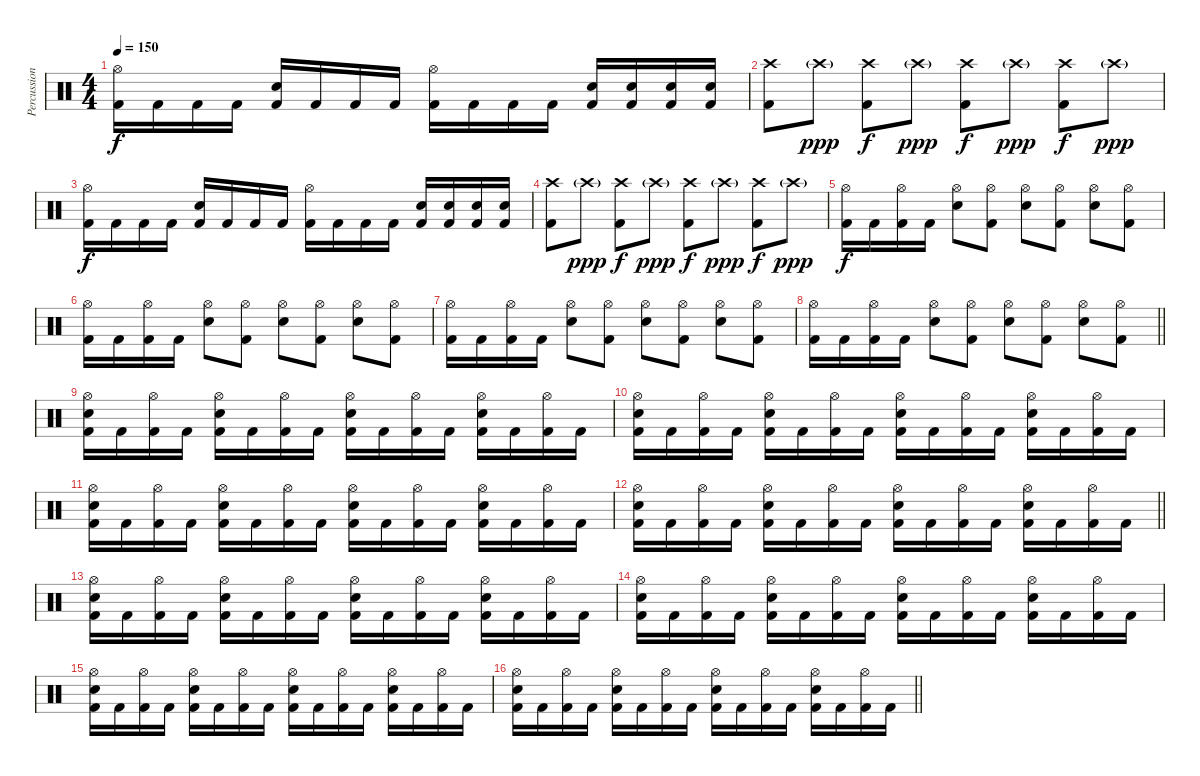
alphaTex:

\track ("Percussion" "Percussion") {instrument percussion}
\staff {score}
\articulation defaults
\ts (4 4)
\tempo 150
\clef neutral
\ks c
("Hi-Hat (open)" "Kick (hit) 2").16{dy f} "Kick (hit) 2".16 "Kick (hit) 2".16 "Kick (hit) 2".16 ("Electric Snare (hit)" "Kick (hit) 2").16 "Kick (hit) 2".16 "Kick (hit) 2".16 "Kick (hit) 2".16 ("Hi-Hat (open)" "Kick (hit) 2").16 "Kick (hit) 2".16 "Kick (hit) 2".16 "Kick (hit) 2".16 ("Electric Snare (hit)" "Kick (hit) 2").16 ("Electric Snare (hit)" "Kick (hit) 2").16 ("Electric Snare (hit)" "Kick (hit) 2").16 ("Electric Snare (hit)" "Kick (hit) 2").16 |
("Crash high (hit)" "Kick (hit) 2").8 "Crash high (hit)"{g}.8{dy ppp} ("Crash high (hit)" "Kick (hit) 2").8{dy f} "Crash high (hit)"{g}.8{dy ppp} ("Crash high (hit)" "Kick (hit) 2").8{dy f} "Crash high (hit)"{g}.8{dy ppp} ("Crash high (hit)" "Kick (hit) 2").8{dy f} "Crash high (hit)"{g}.8{dy ppp} |
("Hi-Hat (open)" "Kick (hit) 2").16{dy f} "Kick (hit) 2".16 "Kick (hit) 2".16 "Kick (hit) 2".16 ("Electric Snare (hit)" "Kick (hit) 2").16 "Kick (hit) 2".16 "Kick (hit) 2".16 "Kick (hit) 2".16 ("Hi-Hat (open)" "Kick (hit) 2").16 "Kick (hit) 2".16 "Kick (hit) 2".16 "Kick (hit) 2".16 ("Electric Snare (hit)" "Kick (hit) 2").16 ("Electric Snare (hit)" "Kick (hit) 2").16 ("Electric Snare (hit)" "Kick (hit) 2").16 ("Electric Snare (hit)" "Kick (hit) 2").16 |
("Crash high (hit)" "Kick (hit) 2").8 "Crash high (hit)"{g}.8{dy ppp} ("Crash high (hit)" "Kick (hit) 2").8{dy f} "Crash high (hit)"{g}.8{dy ppp} ("Crash high (hit)" "Kick (hit) 2").8{dy f} "Crash high (hit)"{g}.8{dy ppp} ("Crash high (hit)" "Kick (hit) 2").8{dy f} "Crash high (hit)"{g}.8{dy ppp} |
("Hi-Hat (open)" "Kick (hit) 2").16{dy f} "Kick (hit) 2".16 ("Hi-Hat (open)" "Kick (hit) 2").16 "Kick (hit) 2".16 ("Hi-Hat (open)" "Electric Snare (hit)").8 ("Hi-Hat (open)" "Kick (hit) 2").8 ("Hi-Hat (open)" "Electric Snare (hit)").8 ("Hi-Hat (open)" "Kick (hit) 2").8 ("Hi-Hat (open)" "Electric Snare (hit)").8 ("Hi-Hat (open)" "Kick (hit) 2").8 |
("Hi-Hat (open)" "Kick (hit) 2").16 "Kick (hit) 2".16 ("Hi-Hat (open)" "Kick (hit) 2").16 "Kick (hit) 2".16 ("Hi-Hat (open)" "Electric Snare (hit)").8 ("Hi-Hat (open)" "Kick (hit) 2").8 ("Hi-Hat (open)" "Electric Snare (hit)").8 ("Hi-Hat (open)" "Kick (hit) 2").8 ("Hi-Hat (open)" "Electric Snare (hit)").8 ("Hi-Hat (open)" "Kick (hit) 2").8 |
("Hi-Hat (open)" "Kick (hit) 2").16 "Kick (hit) 2".16 ("Hi-Hat (open)" "Kick (hit) 2").16 "Kick (hit) 2".16 ("Hi-Hat (open)" "Electric Snare (hit)").8 ("Hi-Hat (open)" "Kick (hit) 2").8 ("Hi-Hat (open)" "Electric Snare (hit)").8 ("Hi-Hat (open)" "Kick (hit) 2").8 ("Hi-Hat (open)" "Electric Snare (hit)").8 ("Hi-Hat (open)" "Kick (hit) 2").8 |
\barLineRight lightlight
("Hi-Hat (open)" "Kick (hit) 2").16 "Kick (hit) 2".16 ("Hi-Hat (open)" "Kick (hit) 2").16 "Kick (hit) 2".16 ("Hi-Hat (open)" "Electric Snare (hit)").8 ("Hi-Hat (open)" "Kick (hit) 2").8 ("Hi-Hat (open)" "Electric Snare (hit)").8 ("Hi-Hat (open)" "Kick (hit) 2").8 ("Hi-Hat (open)" "Electric Snare (hit)").8 ("Hi-Hat (open)" "Kick (hit) 2").8 |
("Hi-Hat (open)" "Electric Snare (hit)" "Kick (hit) 2").16 "Kick (hit) 2".16 ("Hi-Hat (open)" "Kick (hit) 2").16 "Kick (hit) 2".16 ("Hi-Hat (open)" "Electric Snare (hit)" "Kick (hit) 2").16 "Kick (hit) 2".16 ("Hi-Hat (open)" "Kick (hit) 2").16 "Kick (hit) 2".16 ("Hi-Hat (open)" "Electric Snare (hit)" "Kick (hit) 2").16 "Kick (hit) 2".16 ("Hi-Hat (open)" "Kick (hit) 2").16 "Kick (hit) 2".16 ("Hi-Hat (open)" "Electric Snare (hit)" "Kick (hit) 2").16 "Kick (hit) 2".16 ("Hi-Hat (open)" "Kick (hit) 2").16 "Kick (hit) 2".16 |
("Hi-Hat (open)" "Electric Snare (hit)" "Kick (hit) 2").16 "Kick (hit) 2".16 ("Hi-Hat (open)" "Kick (hit) 2").16 "Kick (hit) 2".16 ("Hi-Hat (open)" "Electric Snare (hit)" "Kick (hit) 2").16 "Kick (hit) 2".16 ("Hi-Hat (open)" "Kick (hit) 2").16 "Kick (hit) 2".16 ("Hi-Hat (open)" "Electric Snare (hit)" "Kick (hit) 2").16 "Kick (hit) 2".16 ("Hi-Hat (open)" "Kick (hit) 2").16 "Kick (hit) 2".16 ("Hi-Hat (open)" "Electric Snare (hit)" "Kick (hit) 2").16 "Kick (hit) 2".16 ("Hi-Hat (open)" "Kick (hit) 2").16 "Kick (hit) 2".16 |
("Hi-Hat (open)" "Electric Snare (hit)" "Kick (hit) 2").16 "Kick (hit) 2".16 ("Hi-Hat (open)" "Kick (hit) 2").16 "Kick (hit) 2".16 ("Hi-Hat (open)" "Electric Snare (hit)" "Kick (hit) 2").16 "Kick (hit) 2".16 ("Hi-Hat (open)" "Kick (hit) 2").16 "Kick (hit) 2".16 ("Hi-Hat (open)" "Electric Snare (hit)" "Kick (hit) 2").16 "Kick (hit) 2".16 ("Hi-Hat (open)" "Kick (hit) 2").16 "Kick (hit) 2".16 ("Hi-Hat (open)" "Electric Snare (hit)" "Kick (hit) 2").16 "Kick (hit) 2".16 ("Hi-Hat (open)" "Kick (hit) 2").16 "Kick (hit) 2".16 |
\barLineRight lightlight
("Hi-Hat (open)" "Electric Snare (hit)" "Kick (hit) 2").16 "Kick (hit) 2".16 ("Hi-Hat (open)" "Kick (hit) 2").16 "Kick (hit) 2".16 ("Hi-Hat (open)" "Electric Snare (hit)" "Kick (hit) 2").16 "Kick (hit) 2".16 ("Hi-Hat (open)" "Kick (hit) 2").16 "Kick (hit) 2".16 ("Hi-Hat (open)" "Electric Snare (hit)" "Kick (hit) 2").16 "Kick (hit) 2".16 ("Hi-Hat (open)" "Kick (hit) 2").16 "Kick (hit) 2".16 ("Hi-Hat (open)" "Electric Snare (hit)" "Kick (hit) 2").16 "Kick (hit) 2".16 ("Hi-Hat (open)" "Kick (hit) 2").16 "Kick (hit) 2".16 |
("Hi-Hat (open)" "Electric Snare (hit)" "Kick (hit) 2").16 "Kick (hit) 2".16 ("Hi-Hat (open)" "Kick (hit) 2").16 "Kick (hit) 2".16 ("Hi-Hat (open)" "Electric Snare (hit)" "Kick (hit) 2").16 "Kick (hit) 2".16 ("Hi-Hat (open)" "Kick (hit) 2").16 "Kick (hit) 2".16 ("Hi-Hat (open)" "Electric Snare (hit)" "Kick (hit) 2").16 "Kick (hit) 2".16 ("Hi-Hat (open)" "Kick (hit) 2").16 "Kick (hit) 2".16 ("Hi-Hat (open)" "Electric Snare (hit)" "Kick (hit) 2").16 "Kick (hit) 2".16 ("Hi-Hat (open)" "Kick (hit) 2").16 "Kick (hit) 2".16 |
("Hi-Hat (open)" "Electric Snare (hit)" "Kick (hit) 2").16 "Kick (hit) 2".16 ("Hi-Hat (open)" "Kick (hit) 2").16 "Kick (hit) 2".16 ("Hi-Hat (open)" "Electric Snare (hit)" "Kick (hit) 2").16 "Kick (hit) 2".16 ("Hi-Hat (open)" "Kick (hit) 2").16 "Kick (hit) 2".16 ("Hi-Hat (open)" "Electric Snare (hit)" "Kick (hit) 2").16 "Kick (hit) 2".16 ("Hi-Hat (open)" "Kick (hit) 2").16 "Kick (hit) 2".16 ("Hi-Hat (open)" "Electric Snare (hit)" "Kick (hit) 2").16 "Kick (hit) 2".16 ("Hi-Hat (open)" "Kick (hit) 2").16 "Kick (hit) 2".16 |
("Hi-Hat (open)" "Electric Snare (hit)" "Kick (hit) 2").16 "Kick (hit) 2".16 ("Hi-Hat (open)" "Kick (hit) 2").16 "Kick (hit) 2".16 ("Hi-Hat (open)" "Electric Snare (hit)" "Kick (hit) 2").16 "Kick (hit) 2".16 ("Hi-Hat (open)" "Kick (hit) 2").16 "Kick (hit) 2".16 ("Hi-Hat (open)" "Electric Snare (hit)" "Kick (hit) 2").16 "Kick (hit) 2".16 ("Hi-Hat (open)" "Kick (hit) 2").16 "Kick (hit) 2".16 ("Hi-Hat (open)" "Electric Snare (hit)" "Kick (hit) 2").16 "Kick (hit) 2".16 ("Hi-Hat (open)" "Kick (hit) 2").16 "Kick (hit) 2".16 |
\barLineRight lightlight
("Hi-Hat (open)" "Electric Snare (hit)" "Kick (hit) 2").16 "Kick (hit) 2".16 ("Hi-Hat (open)" "Kick (hit) 2").16 "Kick (hit) 2".16 ("Hi-Hat (open)" "Electric Snare (hit)" "Kick (hit) 2").16 "Kick (hit) 2".16 ("Hi-Hat (open)" "Kick (hit) 2").16 "Kick (hit) 2".16 ("Hi-Hat (open)" "Electric Snare (hit)" "Kick (hit) 2").16 "Kick (hit) 2".16 ("Hi-Hat (open)" "Kick (hit) 2").16 "Kick (hit) 2".16 ("Hi-Hat (open)" "Electric Snare (hit)" "Kick (hit) 2").16 "Kick (hit) 2".16 ("Hi-Hat (open)" "Kick (hit) 2").16 "Kick (hit) 2".16
